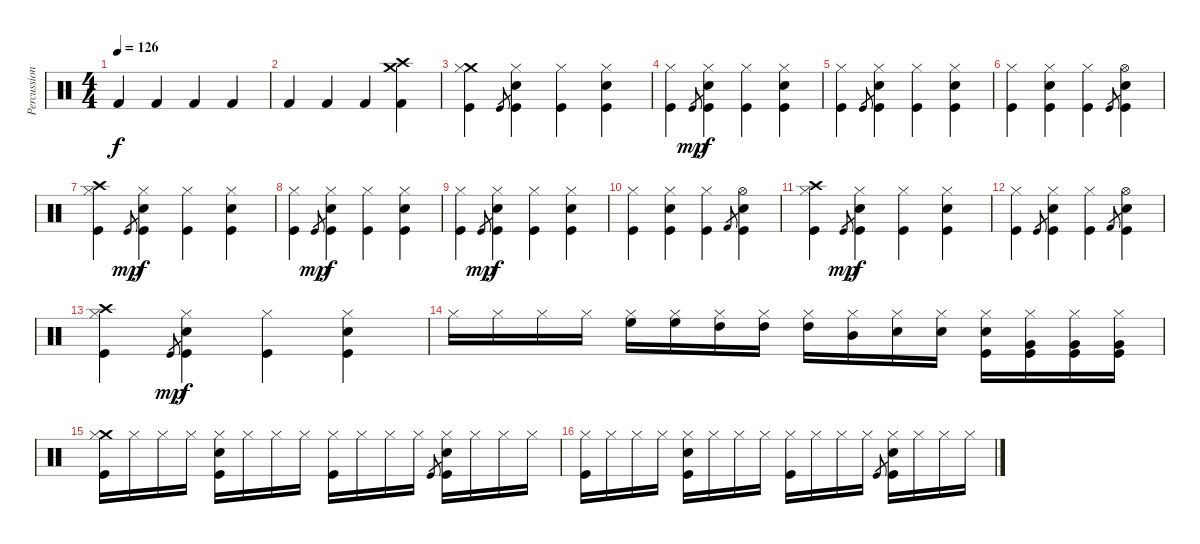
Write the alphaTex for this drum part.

\track ("Percussion" "Percussion") {instrument percussion}
\staff {score}
\articulation defaults
\ts (4 4)
\tempo 126
\clef neutral
\ks c "Kick (hit) 2".4{dy f} "Kick (hit) 2".4 "Kick (hit) 2".4 "Kick (hit) 2".4
|
"Kick (hit) 2".4 "Kick (hit) 2".4 "Kick (hit) 2".4 ("Crash medium (hit)" "Crash high (hit)" "Kick (hit) 2").4 |
("Crash medium (hit)" "Hi-Hat (closed)" "Kick (hit)").4 "Kick (hit)".8{gr} ("Hi-Hat (closed)" "Snare (hit) 2" "Kick (hit)").4 ("Hi-Hat (closed)" "Kick (hit)").4 ("Hi-Hat (closed)" "Snare (hit) 2" "Kick (hit)").4 |
("Hi-Hat (closed)" "Kick (hit)").4 "Kick (hit)".8{gr dy mp} ("Hi-Hat (closed)" "Snare (hit) 2" "Kick (hit)").4{dy f} ("Hi-Hat (closed)" "Kick (hit)").4 ("Hi-Hat (closed)" "Snare (hit) 2" "Kick (hit)").4 |
("Hi-Hat (closed)" "Kick (hit)").4 "Kick (hit)".8{gr} ("Hi-Hat (closed)" "Snare (hit) 2" "Kick (hit)").4 ("Hi-Hat (closed)" "Kick (hit)").4 ("Hi-Hat (closed)" "Snare (hit) 2" "Kick (hit)").4 |
("Hi-Hat (closed)" "Kick (hit)").4 ("Hi-Hat (closed)" "Snare (hit) 2" "Kick (hit)").4 ("Hi-Hat (closed)" "Kick (hit)").4 "Kick (hit)".8{gr} ("Hi-Hat (open)" "Snare (hit) 2" "Kick (hit)").4 |
("Crash high (hit)" "Hi-Hat (closed)" "Kick (hit)").4 "Kick (hit)".8{gr dy mp} ("Hi-Hat (closed)" "Snare (hit) 2" "Kick (hit)").4{dy f} ("Hi-Hat (closed)" "Kick (hit)").4 ("Hi-Hat (closed)" "Snare (hit) 2" "Kick (hit)").4 |
("Hi-Hat (closed)" "Kick (hit)").4 "Kick (hit)".8{gr dy mp} ("Hi-Hat (closed)" "Snare (hit) 2" "Kick (hit)").4{dy f} ("Hi-Hat (closed)" "Kick (hit)").4 ("Hi-Hat (closed)" "Snare (hit) 2" "Kick (hit)").4 |
("Hi-Hat (closed)" "Kick (hit)").4 "Kick (hit)".8{gr dy mp} ("Hi-Hat (closed)" "Snare (hit) 2" "Kick (hit)").4{dy f} ("Hi-Hat (closed)" "Kick (hit)").4 ("Hi-Hat (closed)" "Snare (hit) 2" "Kick (hit)").4 |
("Hi-Hat (closed)" "Kick (hit)").4 ("Hi-Hat (closed)" "Snare (hit) 2" "Kick (hit)").4 ("Hi-Hat (closed)" "Kick (hit)").4 "Kick (hit) 2".8{gr} ("Hi-Hat (open)" "Snare (hit) 2" "Kick (hit)").4 |
("Crash high (hit)" "Hi-Hat (closed)" "Kick (hit)").4 "Kick (hit)".8{gr dy mp} ("Hi-Hat (closed)" "Snare (hit) 2" "Kick (hit)").4{dy f} ("Hi-Hat (closed)" "Kick (hit)").4 ("Hi-Hat (closed)" "Snare (hit) 2" "Kick (hit)").4 |
("Hi-Hat (closed)" "Kick (hit)").4 "Kick (hit)".8{gr} ("Hi-Hat (closed)" "Snare (hit) 2" "Kick (hit)").4 ("Hi-Hat (closed)" "Kick (hit)").4 "Kick (hit) 2".8{gr} ("Hi-Hat (open)" "Snare (hit) 2" "Kick (hit)").4 |
("Crash high (hit)" "Hi-Hat (closed)" "Kick (hit)").4 "Kick (hit)".8{gr dy mp} ("Hi-Hat (closed)" "Snare (hit) 2" "Kick (hit)").4{dy f} ("Hi-Hat (closed)" "Kick (hit)").4 ("Hi-Hat (closed)" "Snare (hit) 2" "Kick (hit)").4 |
"Hi-Hat (closed)".16 "Hi-Hat (closed)".16 "Hi-Hat (closed)".16 "Hi-Hat (closed)".16 ("Hi-Hat (closed)" "High Floor Tom (hit)").16 ("Hi-Hat (closed)" "High Floor Tom (hit)").16 ("Hi-Hat (closed)" "High Tom (hit)").16 ("Hi-Hat (closed)" "High Tom (hit)").16 ("Hi-Hat (closed)" "High Tom (hit)").16 ("Hi-Hat (closed)" "Mid Tom (hit)").16 ("Hi-Hat (closed)" "Snare (hit) 2").16 ("Hi-Hat (closed)" "Snare (hit) 2").16 ("Hi-Hat (closed)" "Snare (hit) 2" "Kick (hit)").16 ("Hi-Hat (closed)" "Very Low Tom (hit)" "Kick (hit)").16 ("Hi-Hat (closed)" "Very Low Tom (hit)" "Kick (hit)").16 ("Hi-Hat (closed)" "Very Low Tom (hit)" "Kick (hit)").16 |
("Crash medium (hit)" "Hi-Hat (closed)" "Kick (hit)").16 "Hi-Hat (closed)".16 "Hi-Hat (closed)".16 "Hi-Hat (closed)".16 ("Hi-Hat (closed)" "Snare (hit) 2" "Kick (hit)").16 "Hi-Hat (closed)".16 "Hi-Hat (closed)".16 "Hi-Hat (closed)".16 ("Hi-Hat (closed)" "Kick (hit)").16 "Hi-Hat (closed)".16 "Hi-Hat (closed)".16 "Hi-Hat (closed)".16 "Kick (hit)".8{gr} ("Hi-Hat (closed)" "Snare (hit) 2" "Kick (hit)").16 "Hi-Hat (closed)".16 "Hi-Hat (closed)".16 "Hi-Hat (closed)".16 |
("Hi-Hat (closed)" "Kick (hit)").16 "Hi-Hat (closed)".16 "Hi-Hat (closed)".16 "Hi-Hat (closed)".16 ("Hi-Hat (closed)" "Snare (hit) 2" "Kick (hit)").16 "Hi-Hat (closed)".16 "Hi-Hat (closed)".16 "Hi-Hat (closed)".16 ("Hi-Hat (closed)" "Kick (hit)").16 "Hi-Hat (closed)".16 "Hi-Hat (closed)".16 "Hi-Hat (closed)".16 "Kick (hit)".8{gr} ("Hi-Hat (closed)" "Snare (hit) 2" "Kick (hit)").16 "Hi-Hat (closed)".16 "Hi-Hat (closed)".16 "Hi-Hat (closed)".16
